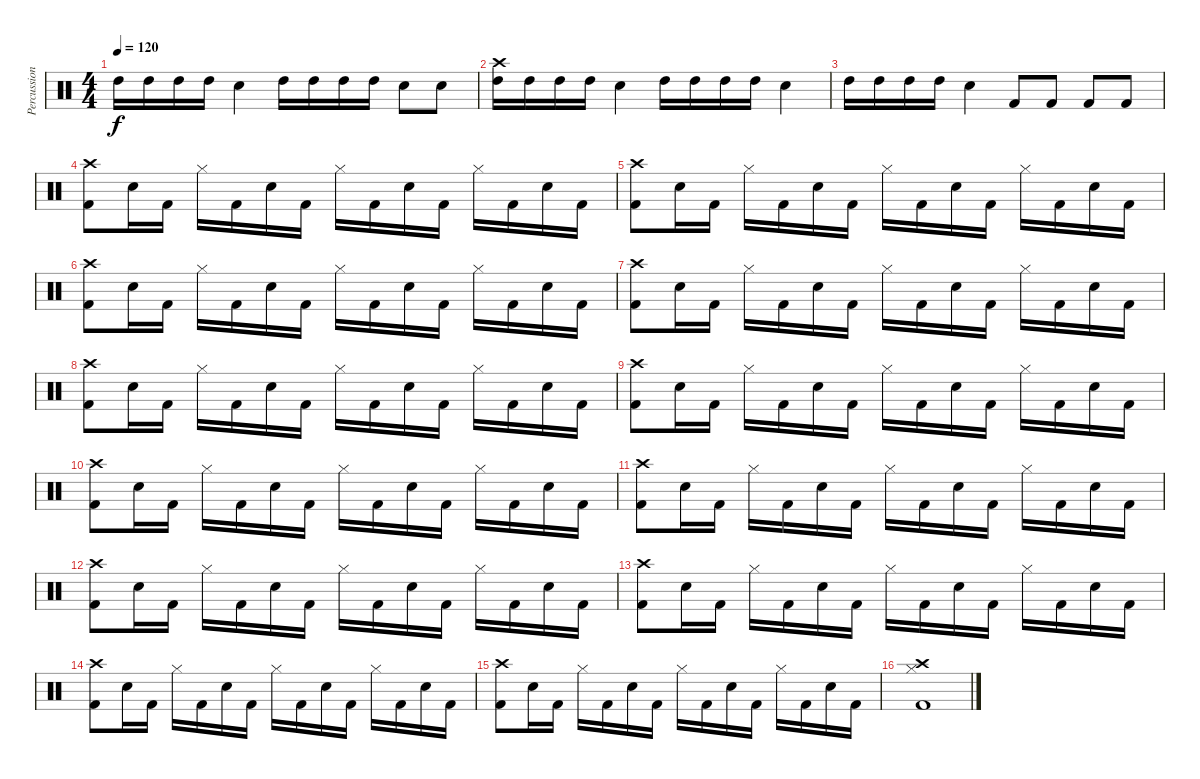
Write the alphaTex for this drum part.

\track ("Percussion" "Percussion") {instrument percussion}
\staff {score}
\articulation defaults
\ts (4 4)
\tempo 120
\clef neutral
\ks c "High Tom (hit)".16{dy f} "High Tom (hit)".16 "High Tom (hit)".16 "High Tom (hit)".16 "Snare (hit) 2".4 "High Tom (hit)".16 "High Tom (hit)".16 "High Tom (hit)".16 "High Tom (hit)".16 "Snare (hit) 2".8 "Snare (hit) 2".8
|
("Crash high (hit)" "High Tom (hit)").16 "High Tom (hit)".16 "High Tom (hit)".16 "High Tom (hit)".16 "Snare (hit) 2".4 "High Tom (hit)".16 "High Tom (hit)".16 "High Tom (hit)".16 "High Tom (hit)".16 "Snare (hit) 2".4 |
"High Tom (hit)".16 "High Tom (hit)".16 "High Tom (hit)".16 "High Tom (hit)".16 "Snare (hit) 2".4 "Kick (hit) 2".8 "Kick (hit) 2".8 "Kick (hit) 2".8 "Kick (hit) 2".8 |
("Crash high (hit)" "Kick (hit) 2").8 "Snare (hit) 2".16 "Kick (hit) 2".16 "Hi-Hat (closed)".16 "Kick (hit) 2".16 "Snare (hit) 2".16 "Kick (hit) 2".16 "Hi-Hat (closed)".16 "Kick (hit) 2".16 "Snare (hit) 2".16 "Kick (hit) 2".16 "Hi-Hat (closed)".16 "Kick (hit) 2".16 "Snare (hit) 2".16 "Kick (hit) 2".16 |
("Crash high (hit)" "Kick (hit) 2").8 "Snare (hit) 2".16 "Kick (hit) 2".16 "Hi-Hat (closed)".16 "Kick (hit) 2".16 "Snare (hit) 2".16 "Kick (hit) 2".16 "Hi-Hat (closed)".16 "Kick (hit) 2".16 "Snare (hit) 2".16 "Kick (hit) 2".16 "Hi-Hat (closed)".16 "Kick (hit) 2".16 "Snare (hit) 2".16 "Kick (hit) 2".16 |
("Crash high (hit)" "Kick (hit) 2").8 "Snare (hit) 2".16 "Kick (hit) 2".16 "Hi-Hat (closed)".16 "Kick (hit) 2".16 "Snare (hit) 2".16 "Kick (hit) 2".16 "Hi-Hat (closed)".16 "Kick (hit) 2".16 "Snare (hit) 2".16 "Kick (hit) 2".16 "Hi-Hat (closed)".16 "Kick (hit) 2".16 "Snare (hit) 2".16 "Kick (hit) 2".16 |
("Crash high (hit)" "Kick (hit) 2").8 "Snare (hit) 2".16 "Kick (hit) 2".16 "Hi-Hat (closed)".16 "Kick (hit) 2".16 "Snare (hit) 2".16 "Kick (hit) 2".16 "Hi-Hat (closed)".16 "Kick (hit) 2".16 "Snare (hit) 2".16 "Kick (hit) 2".16 "Hi-Hat (closed)".16 "Kick (hit) 2".16 "Snare (hit) 2".16 "Kick (hit) 2".16 |
("Crash high (hit)" "Kick (hit) 2").8 "Snare (hit) 2".16 "Kick (hit) 2".16 "Hi-Hat (closed)".16 "Kick (hit) 2".16 "Snare (hit) 2".16 "Kick (hit) 2".16 "Hi-Hat (closed)".16 "Kick (hit) 2".16 "Snare (hit) 2".16 "Kick (hit) 2".16 "Hi-Hat (closed)".16 "Kick (hit) 2".16 "Snare (hit) 2".16 "Kick (hit) 2".16 |
("Crash high (hit)" "Kick (hit) 2").8 "Snare (hit) 2".16 "Kick (hit) 2".16 "Hi-Hat (closed)".16 "Kick (hit) 2".16 "Snare (hit) 2".16 "Kick (hit) 2".16 "Hi-Hat (closed)".16 "Kick (hit) 2".16 "Snare (hit) 2".16 "Kick (hit) 2".16 "Hi-Hat (closed)".16 "Kick (hit) 2".16 "Snare (hit) 2".16 "Kick (hit) 2".16 |
("Crash high (hit)" "Kick (hit) 2").8 "Snare (hit) 2".16 "Kick (hit) 2".16 "Hi-Hat (closed)".16 "Kick (hit) 2".16 "Snare (hit) 2".16 "Kick (hit) 2".16 "Hi-Hat (closed)".16 "Kick (hit) 2".16 "Snare (hit) 2".16 "Kick (hit) 2".16 "Hi-Hat (closed)".16 "Kick (hit) 2".16 "Snare (hit) 2".16 "Kick (hit) 2".16 |
("Crash high (hit)" "Kick (hit) 2").8 "Snare (hit) 2".16 "Kick (hit) 2".16 "Hi-Hat (closed)".16 "Kick (hit) 2".16 "Snare (hit) 2".16 "Kick (hit) 2".16 "Hi-Hat (closed)".16 "Kick (hit) 2".16 "Snare (hit) 2".16 "Kick (hit) 2".16 "Hi-Hat (closed)".16 "Kick (hit) 2".16 "Snare (hit) 2".16 "Kick (hit) 2".16 |
("Crash high (hit)" "Kick (hit) 2").8 "Snare (hit) 2".16 "Kick (hit) 2".16 "Hi-Hat (closed)".16 "Kick (hit) 2".16 "Snare (hit) 2".16 "Kick (hit) 2".16 "Hi-Hat (closed)".16 "Kick (hit) 2".16 "Snare (hit) 2".16 "Kick (hit) 2".16 "Hi-Hat (closed)".16 "Kick (hit) 2".16 "Snare (hit) 2".16 "Kick (hit) 2".16 |
("Crash high (hit)" "Kick (hit) 2").8 "Snare (hit) 2".16 "Kick (hit) 2".16 "Hi-Hat (closed)".16 "Kick (hit) 2".16 "Snare (hit) 2".16 "Kick (hit) 2".16 "Hi-Hat (closed)".16 "Kick (hit) 2".16 "Snare (hit) 2".16 "Kick (hit) 2".16 "Hi-Hat (closed)".16 "Kick (hit) 2".16 "Snare (hit) 2".16 "Kick (hit) 2".16 |
("Crash high (hit)" "Kick (hit) 2").8 "Snare (hit) 2".16 "Kick (hit) 2".16 "Hi-Hat (closed)".16 "Kick (hit) 2".16 "Snare (hit) 2".16 "Kick (hit) 2".16 "Hi-Hat (closed)".16 "Kick (hit) 2".16 "Snare (hit) 2".16 "Kick (hit) 2".16 "Hi-Hat (closed)".16 "Kick (hit) 2".16 "Snare (hit) 2".16 "Kick (hit) 2".16 |
("Crash high (hit)" "Kick (hit) 2").8 "Snare (hit) 2".16 "Kick (hit) 2".16 "Hi-Hat (closed)".16 "Kick (hit) 2".16 "Snare (hit) 2".16 "Kick (hit) 2".16 "Hi-Hat (closed)".16 "Kick (hit) 2".16 "Snare (hit) 2".16 "Kick (hit) 2".16 "Hi-Hat (closed)".16 "Kick (hit) 2".16 "Snare (hit) 2".16 "Kick (hit) 2".16 |
("Crash high (hit)" "Hi-Hat (closed)" "Kick (hit) 2").1
